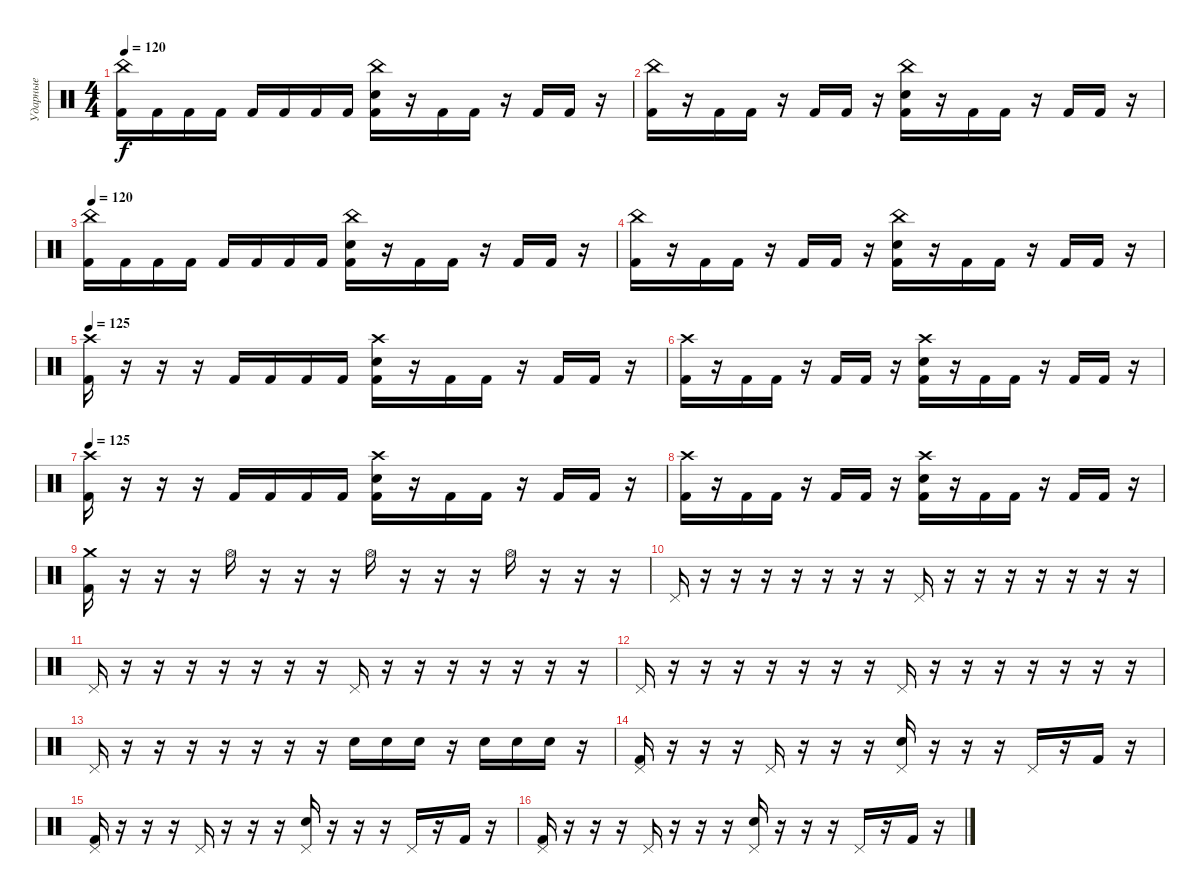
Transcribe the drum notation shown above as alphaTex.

\track ("Ударные" "Ударные") {instrument percussion}
\staff {score}
\articulation defaults
\ts (4 4)
\tempo 120
\clef neutral
\ks c
("China (hit)" "Kick (hit) 2").16{dy f} "Kick (hit) 2".16 "Kick (hit) 2".16 "Kick (hit) 2".16 "Kick (hit) 2".16 "Kick (hit) 2".16 "Kick (hit) 2".16 "Kick (hit) 2".16 ("China (hit)" "Electric Snare (hit)" "Kick (hit) 2").16 r.16 "Kick (hit) 2".16 "Kick (hit) 2".16 r.16 "Kick (hit) 2".16 "Kick (hit) 2".16 r.16 |
("China (hit)" "Kick (hit) 2").16 r.16 "Kick (hit) 2".16 "Kick (hit) 2".16 r.16 "Kick (hit) 2".16 "Kick (hit) 2".16 r.16 ("China (hit)" "Electric Snare (hit)" "Kick (hit) 2").16 r.16 "Kick (hit) 2".16 "Kick (hit) 2".16 r.16 "Kick (hit) 2".16 "Kick (hit) 2".16 r.16 |
\tempo 120
("China (hit)" "Kick (hit) 2").16 "Kick (hit) 2".16 "Kick (hit) 2".16 "Kick (hit) 2".16 "Kick (hit) 2".16 "Kick (hit) 2".16 "Kick (hit) 2".16 "Kick (hit) 2".16 ("China (hit)" "Electric Snare (hit)" "Kick (hit) 2").16 r.16 "Kick (hit) 2".16 "Kick (hit) 2".16 r.16 "Kick (hit) 2".16 "Kick (hit) 2".16 r.16 |
("China (hit)" "Kick (hit) 2").16 r.16 "Kick (hit) 2".16 "Kick (hit) 2".16 r.16 "Kick (hit) 2".16 "Kick (hit) 2".16 r.16 ("China (hit)" "Electric Snare (hit)" "Kick (hit) 2").16 r.16 "Kick (hit) 2".16 "Kick (hit) 2".16 r.16 "Kick (hit) 2".16 "Kick (hit) 2".16 r.16 |
\tempo 125
("Crash high (hit)" "Kick (hit) 2").16 r.16 r.16 r.16 "Kick (hit) 2".16 "Kick (hit) 2".16 "Kick (hit) 2".16 "Kick (hit) 2".16 ("Crash high (hit)" "Electric Snare (hit)" "Kick (hit) 2").16 r.16 "Kick (hit) 2".16 "Kick (hit) 2".16 r.16 "Kick (hit) 2".16 "Kick (hit) 2".16 r.16 |
("Crash high (hit)" "Kick (hit) 2").16 r.16 "Kick (hit) 2".16 "Kick (hit) 2".16 r.16 "Kick (hit) 2".16 "Kick (hit) 2".16 r.16 ("Crash high (hit)" "Electric Snare (hit)" "Kick (hit) 2").16 r.16 "Kick (hit) 2".16 "Kick (hit) 2".16 r.16 "Kick (hit) 2".16 "Kick (hit) 2".16 r.16 |
\tempo 125
("Crash high (hit)" "Kick (hit) 2").16 r.16 r.16 r.16 "Kick (hit) 2".16 "Kick (hit) 2".16 "Kick (hit) 2".16 "Kick (hit) 2".16 ("Crash high (hit)" "Electric Snare (hit)" "Kick (hit) 2").16 r.16 "Kick (hit) 2".16 "Kick (hit) 2".16 r.16 "Kick (hit) 2".16 "Kick (hit) 2".16 r.16 |
("Crash high (hit)" "Kick (hit) 2").16 r.16 "Kick (hit) 2".16 "Kick (hit) 2".16 r.16 "Kick (hit) 2".16 "Kick (hit) 2".16 r.16 ("Crash high (hit)" "Electric Snare (hit)" "Kick (hit) 2").16 r.16 "Kick (hit) 2".16 "Kick (hit) 2".16 r.16 "Kick (hit) 2".16 "Kick (hit) 2".16 r.16 |
("Crash medium (hit)" "Kick (hit) 2").16 r.16 r.16 r.16 "Hi-Hat (open)".16 r.16 r.16 r.16 "Hi-Hat (open)".16 r.16 r.16 r.16 "Hi-Hat (open)".16 r.16 r.16 r.16 |
"Pedal Hi-Hat (hit)".16 r.16 r.16 r.16 r.16 r.16 r.16 r.16 "Pedal Hi-Hat (hit)".16 r.16 r.16 r.16 r.16 r.16 r.16 r.16 |
"Pedal Hi-Hat (hit)".16 r.16 r.16 r.16 r.16 r.16 r.16 r.16 "Pedal Hi-Hat (hit)".16 r.16 r.16 r.16 r.16 r.16 r.16 r.16 |
"Pedal Hi-Hat (hit)".16 r.16 r.16 r.16 r.16 r.16 r.16 r.16 "Pedal Hi-Hat (hit)".16 r.16 r.16 r.16 r.16 r.16 r.16 r.16 |
"Pedal Hi-Hat (hit)".16 r.16 r.16 r.16 r.16 r.16 r.16 r.16 "Electric Snare (hit)".16 "Electric Snare (hit)".16 "Electric Snare (hit)".16 r.16 "Electric Snare (hit)".16 "Electric Snare (hit)".16 "Electric Snare (hit)".16 r.16 |
("Pedal Hi-Hat (hit)" "Kick (hit) 2").16 r.16 r.16 r.16 "Pedal Hi-Hat (hit)".16 r.16 r.16 r.16 ("Pedal Hi-Hat (hit)" "Electric Snare (hit)").16 r.16 r.16 r.16 "Pedal Hi-Hat (hit)".16 r.16 "Kick (hit) 2".16 r.16 |
("Pedal Hi-Hat (hit)" "Kick (hit) 2").16 r.16 r.16 r.16 "Pedal Hi-Hat (hit)".16 r.16 r.16 r.16 ("Pedal Hi-Hat (hit)" "Electric Snare (hit)").16 r.16 r.16 r.16 "Pedal Hi-Hat (hit)".16 r.16 "Kick (hit) 2".16 r.16 |
("Pedal Hi-Hat (hit)" "Kick (hit) 2").16 r.16 r.16 r.16 "Pedal Hi-Hat (hit)".16 r.16 r.16 r.16 ("Pedal Hi-Hat (hit)" "Electric Snare (hit)").16 r.16 r.16 r.16 "Pedal Hi-Hat (hit)".16 r.16 "Kick (hit) 2".16 r.16
